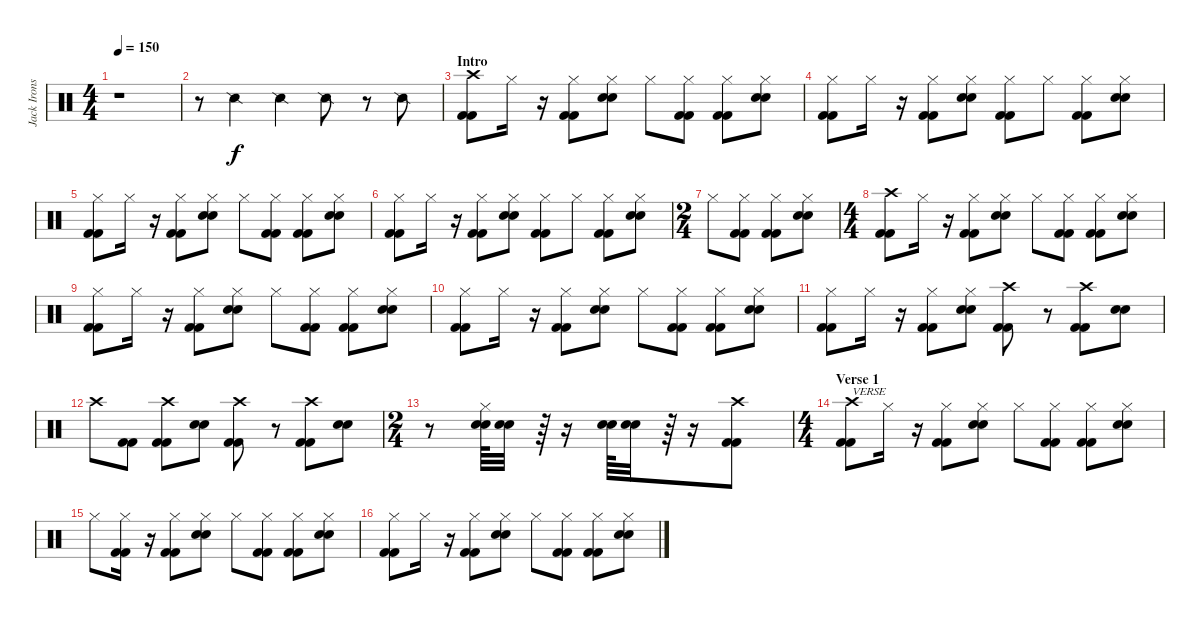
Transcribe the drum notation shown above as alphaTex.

\track ("Jack Irons" "Jack Irons") {instrument percussion}
\staff {score}
\articulation defaults
\ts (4 4)
\tempo 150
\clef neutral
\ks c
r.1{dy f} |
r.8 "Snare (side stick) 2".4 "Snare (side stick) 2".4 "Snare (side stick) 2".8 r.8 "Snare (side stick) 2".8 |
\section ("" "Intro")
("Crash high (hit)" "Kick (hit) 2" "Kick (hit) 2").8 "Hi-Hat (closed)".16 r.16 ("Hi-Hat (closed)" "Kick (hit) 2" "Kick (hit) 2").8 ("Hi-Hat (closed)" "Electric Snare (hit)" "Electric Snare (hit)").8 "Hi-Hat (closed)".8 ("Hi-Hat (closed)" "Kick (hit) 2" "Kick (hit) 2").8 ("Hi-Hat (closed)" "Kick (hit) 2" "Kick (hit) 2").8 ("Hi-Hat (closed)" "Electric Snare (hit)" "Electric Snare (hit)").8 |
("Hi-Hat (closed)" "Kick (hit) 2" "Kick (hit) 2").8 "Hi-Hat (closed)".16 r.16 ("Hi-Hat (closed)" "Kick (hit) 2" "Kick (hit) 2").8 ("Hi-Hat (closed)" "Electric Snare (hit)" "Electric Snare (hit)").8 ("Hi-Hat (closed)" "Kick (hit) 2" "Kick (hit) 2").8 "Hi-Hat (closed)".8 ("Hi-Hat (closed)" "Kick (hit) 2" "Kick (hit) 2").8 ("Hi-Hat (closed)" "Electric Snare (hit)" "Electric Snare (hit)").8 |
("Hi-Hat (closed)" "Kick (hit) 2" "Kick (hit) 2").8 "Hi-Hat (closed)".16 r.16 ("Hi-Hat (closed)" "Kick (hit) 2" "Kick (hit) 2").8 ("Hi-Hat (closed)" "Electric Snare (hit)" "Electric Snare (hit)").8 "Hi-Hat (closed)".8 ("Hi-Hat (closed)" "Kick (hit) 2" "Kick (hit) 2").8 ("Hi-Hat (closed)" "Kick (hit) 2" "Kick (hit) 2").8 ("Hi-Hat (closed)" "Electric Snare (hit)" "Electric Snare (hit)").8 |
("Hi-Hat (closed)" "Kick (hit) 2" "Kick (hit) 2").8 "Hi-Hat (closed)".16 r.16 ("Hi-Hat (closed)" "Kick (hit) 2" "Kick (hit) 2").8 ("Hi-Hat (closed)" "Electric Snare (hit)" "Electric Snare (hit)").8 ("Hi-Hat (closed)" "Kick (hit) 2" "Kick (hit) 2").8 "Hi-Hat (closed)".8 ("Hi-Hat (closed)" "Kick (hit) 2" "Kick (hit) 2").8 ("Hi-Hat (closed)" "Electric Snare (hit)" "Electric Snare (hit)").8 |
\ts (2 4)
"Hi-Hat (closed)".8 ("Hi-Hat (closed)" "Kick (hit) 2" "Kick (hit) 2").8 ("Hi-Hat (closed)" "Kick (hit) 2" "Kick (hit) 2").8 ("Hi-Hat (closed)" "Electric Snare (hit)" "Electric Snare (hit)").8 |
\ts (4 4)
("Crash high (hit)" "Kick (hit) 2" "Kick (hit) 2").8 "Hi-Hat (closed)".16 r.16 ("Hi-Hat (closed)" "Kick (hit) 2" "Kick (hit) 2").8 ("Hi-Hat (closed)" "Electric Snare (hit)" "Electric Snare (hit)").8 "Hi-Hat (closed)".8 ("Hi-Hat (closed)" "Kick (hit) 2" "Kick (hit) 2").8 ("Hi-Hat (closed)" "Kick (hit) 2" "Kick (hit) 2").8 ("Hi-Hat (closed)" "Electric Snare (hit)" "Electric Snare (hit)").8 |
("Hi-Hat (closed)" "Kick (hit) 2" "Kick (hit) 2").8 "Hi-Hat (closed)".16 r.16 ("Hi-Hat (closed)" "Kick (hit) 2" "Kick (hit) 2").8 ("Hi-Hat (closed)" "Electric Snare (hit)" "Electric Snare (hit)").8 "Hi-Hat (closed)".8 ("Hi-Hat (closed)" "Kick (hit) 2" "Kick (hit) 2").8 ("Hi-Hat (closed)" "Kick (hit) 2" "Kick (hit) 2").8 ("Hi-Hat (closed)" "Electric Snare (hit)" "Electric Snare (hit)").8 |
("Hi-Hat (closed)" "Kick (hit) 2" "Kick (hit) 2").8 "Hi-Hat (closed)".16 r.16 ("Hi-Hat (closed)" "Kick (hit) 2" "Kick (hit) 2").8 ("Hi-Hat (closed)" "Electric Snare (hit)" "Electric Snare (hit)").8 "Hi-Hat (closed)".8 ("Hi-Hat (closed)" "Kick (hit) 2" "Kick (hit) 2").8 ("Hi-Hat (closed)" "Kick (hit) 2" "Kick (hit) 2").8 ("Hi-Hat (closed)" "Electric Snare (hit)" "Electric Snare (hit)").8 |
("Hi-Hat (closed)" "Kick (hit) 2" "Kick (hit) 2").8 "Hi-Hat (closed)".16 r.16 ("Hi-Hat (closed)" "Kick (hit) 2" "Kick (hit) 2").8 ("Hi-Hat (closed)" "Electric Snare (hit)" "Electric Snare (hit)").8 ("Crash high (hit)" "Kick (hit) 2" "Kick (hit) 2").8 r.8 ("Crash high (hit)" "Kick (hit) 2" "Kick (hit) 2").8 ("Electric Snare (hit)" "Electric Snare (hit)").8 |
"Crash high (hit)".8 ("Kick (hit) 2" "Kick (hit) 2").8 ("Crash high (hit)" "Kick (hit) 2" "Kick (hit) 2").8 ("Electric Snare (hit)" "Electric Snare (hit)").8 ("Crash high (hit)" "Kick (hit) 2" "Kick (hit) 2").8 r.8 ("Crash high (hit)" "Kick (hit) 2" "Kick (hit) 2").8 ("Electric Snare (hit)" "Electric Snare (hit)").8 |
\ts (2 4)
r.8 ("Hi-Hat (closed)" "Electric Snare (hit)" "Electric Snare (hit)").64 ("Electric Snare (hit)" "Electric Snare (hit)").32 r.64 r.16 ("Electric Snare (hit)" "Electric Snare (hit)").64 ("Electric Snare (hit)" "Electric Snare (hit)").32 r.64 r.16 ("Crash high (hit)" "Kick (hit) 2" "Kick (hit) 2").8 |
\ts (4 4)
\section ("" "Verse 1")
("Crash high (hit)" "Kick (hit) 2" "Kick (hit) 2").8{txt "VERSE"} "Hi-Hat (closed)".16 r.16 ("Hi-Hat (closed)" "Kick (hit) 2" "Kick (hit) 2").8 ("Hi-Hat (closed)" "Electric Snare (hit)" "Electric Snare (hit)").8 "Hi-Hat (closed)".8 ("Hi-Hat (closed)" "Kick (hit) 2" "Kick (hit) 2").8 ("Hi-Hat (closed)" "Kick (hit) 2" "Kick (hit) 2").8 ("Hi-Hat (closed)" "Electric Snare (hit)" "Electric Snare (hit)").8 |
"Hi-Hat (closed)".8 ("Hi-Hat (closed)" "Kick (hit) 2" "Kick (hit) 2").16 r.16 ("Hi-Hat (closed)" "Kick (hit) 2" "Kick (hit) 2").8 ("Hi-Hat (closed)" "Electric Snare (hit)" "Electric Snare (hit)").8 "Hi-Hat (closed)".8 ("Hi-Hat (closed)" "Kick (hit) 2" "Kick (hit) 2").8 ("Hi-Hat (closed)" "Kick (hit) 2" "Kick (hit) 2").8 ("Hi-Hat (closed)" "Electric Snare (hit)" "Electric Snare (hit)").8 |
("Hi-Hat (closed)" "Kick (hit) 2" "Kick (hit) 2").8 "Hi-Hat (closed)".16 r.16 ("Hi-Hat (closed)" "Kick (hit) 2" "Kick (hit) 2").8 ("Hi-Hat (closed)" "Electric Snare (hit)" "Electric Snare (hit)").8 "Hi-Hat (closed)".8 ("Hi-Hat (closed)" "Kick (hit) 2" "Kick (hit) 2").8 ("Hi-Hat (closed)" "Kick (hit) 2" "Kick (hit) 2").8 ("Hi-Hat (closed)" "Electric Snare (hit)" "Electric Snare (hit)").8
